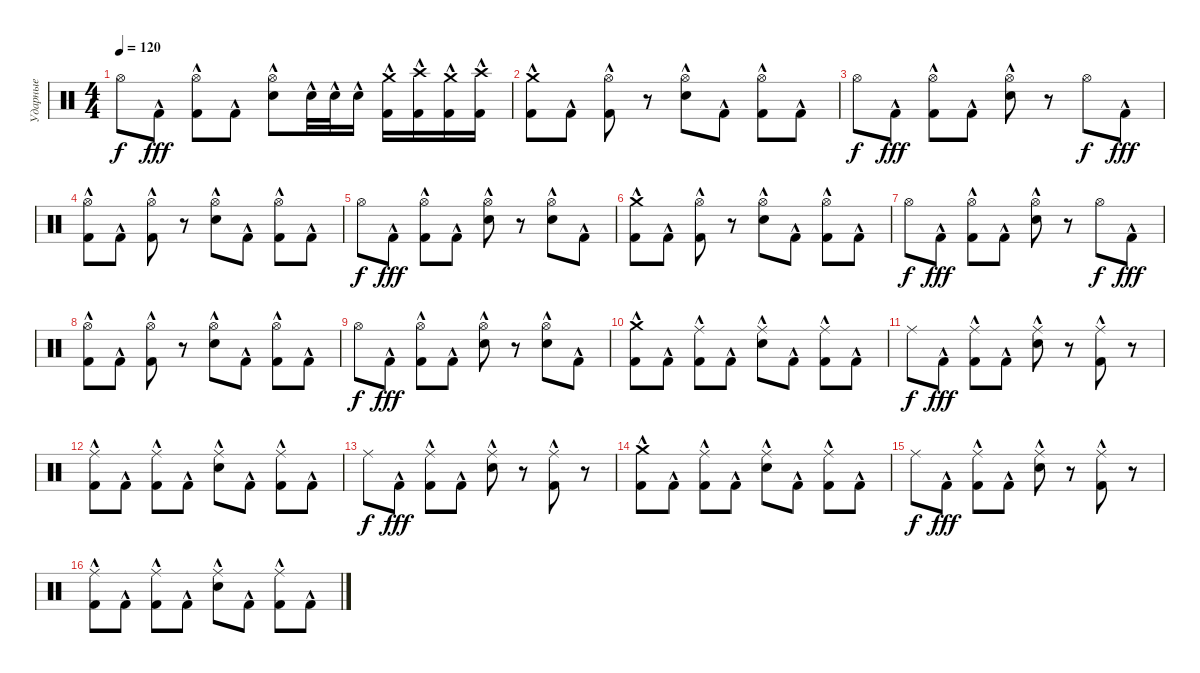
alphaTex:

\track ("Ударные" "Ударные") {instrument percussion}
\staff
\articulation defaults
\ts (4 4)
\tempo 120
\clef neutral
\ks c "Hi-Hat (open)".8{dy f} "Kick (hit) 2"{hac}.8{dy fff}
("Hi-Hat (open)" "Kick (hit) 2"{hac}).8 "Kick (hit) 2"{hac}.8 ("Hi-Hat (open)" "Snare (hit) 2"{hac}).8 "Snare (hit) 2"{hac}.32 "Snare (hit) 2"{hac}.32 "Snare (hit) 2"{hac}.16 ("Crash medium (hit)" "Kick (hit) 2"{hac}).16 ("Crash high (hit)" "Kick (hit) 2"{hac}).16 ("Crash medium (hit)" "Kick (hit) 2"{hac}).16 ("Crash high (hit)" "Kick (hit) 2"{hac}).16 |
("Crash medium (hit)" "Kick (hit) 2"{hac}).8 "Kick (hit) 2"{hac}.8 ("Hi-Hat (open)" "Kick (hit) 2"{hac}).8 r.8 ("Hi-Hat (open)" "Snare (hit) 2"{hac}).8 "Kick (hit) 2"{hac}.8 ("Hi-Hat (open)" "Kick (hit) 2"{hac}).8 "Kick (hit) 2"{hac}.8 |
"Hi-Hat (open)".8{dy f} "Kick (hit) 2"{hac}.8{dy fff} ("Hi-Hat (open)" "Kick (hit) 2"{hac}).8 "Kick (hit) 2"{hac}.8 ("Hi-Hat (open)" "Snare (hit) 2"{hac}).8 r.8 "Hi-Hat (open)".8{dy f} "Kick (hit) 2"{hac}.8{dy fff} |
("Hi-Hat (open)" "Kick (hit) 2"{hac}).8 "Kick (hit) 2"{hac}.8 ("Hi-Hat (open)" "Kick (hit) 2"{hac}).8 r.8 ("Hi-Hat (open)" "Snare (hit) 2"{hac}).8 "Kick (hit) 2"{hac}.8 ("Hi-Hat (open)" "Kick (hit) 2"{hac}).8 "Kick (hit) 2"{hac}.8 |
"Hi-Hat (open)".8{dy f} "Kick (hit) 2"{hac}.8{dy fff} ("Hi-Hat (open)" "Kick (hit) 2"{hac}).8 "Kick (hit) 2"{hac}.8 ("Hi-Hat (open)" "Snare (hit) 2"{hac}).8 r.8 ("Hi-Hat (open)" "Snare (hit) 2"{hac}).8 "Kick (hit) 2"{hac}.8 |
("Crash medium (hit)" "Kick (hit) 2"{hac}).8 "Kick (hit) 2"{hac}.8 ("Hi-Hat (open)" "Kick (hit) 2"{hac}).8 r.8 ("Hi-Hat (open)" "Snare (hit) 2"{hac}).8 "Kick (hit) 2"{hac}.8 ("Hi-Hat (open)" "Kick (hit) 2"{hac}).8 "Kick (hit) 2"{hac}.8 |
"Hi-Hat (open)".8{dy f} "Kick (hit) 2"{hac}.8{dy fff} ("Hi-Hat (open)" "Kick (hit) 2"{hac}).8 "Kick (hit) 2"{hac}.8 ("Hi-Hat (open)" "Snare (hit) 2"{hac}).8 r.8 "Hi-Hat (open)".8{dy f} "Kick (hit) 2"{hac}.8{dy fff} |
("Hi-Hat (open)" "Kick (hit) 2"{hac}).8 "Kick (hit) 2"{hac}.8 ("Hi-Hat (open)" "Kick (hit) 2"{hac}).8 r.8 ("Hi-Hat (open)" "Snare (hit) 2"{hac}).8 "Kick (hit) 2"{hac}.8 ("Hi-Hat (open)" "Kick (hit) 2"{hac}).8 "Kick (hit) 2"{hac}.8 |
"Hi-Hat (open)".8{dy f} "Kick (hit) 2"{hac}.8{dy fff} ("Hi-Hat (open)" "Kick (hit) 2"{hac}).8 "Kick (hit) 2"{hac}.8 ("Hi-Hat (open)" "Snare (hit) 2"{hac}).8 r.8 ("Hi-Hat (open)" "Snare (hit) 2"{hac}).8 "Kick (hit) 2"{hac}.8 |
("Crash medium (hit)" "Kick (hit) 2"{hac}).8 "Kick (hit) 2"{hac}.8 ("Ride (middle)" "Kick (hit) 2"{hac}).8 "Kick (hit) 2"{hac}.8 ("Ride (middle)" "Snare (hit) 2"{hac}).8 "Kick (hit) 2"{hac}.8 ("Ride (middle)" "Kick (hit) 2"{hac}).8 "Kick (hit) 2"{hac}.8 |
"Ride (middle)".8{dy f} "Kick (hit) 2"{hac}.8{dy fff} ("Ride (middle)" "Kick (hit) 2"{hac}).8 "Kick (hit) 2"{hac}.8 ("Ride (middle)" "Snare (hit) 2"{hac}).8 r.8 ("Ride (middle)" "Kick (hit) 2"{hac}).8 r.8 |
("Ride (middle)" "Kick (hit) 2"{hac}).8 "Kick (hit) 2"{hac}.8 ("Ride (middle)" "Kick (hit) 2"{hac}).8 "Kick (hit) 2"{hac}.8 ("Ride (middle)" "Snare (hit) 2"{hac}).8 "Kick (hit) 2"{hac}.8 ("Ride (middle)" "Kick (hit) 2"{hac}).8 "Kick (hit) 2"{hac}.8 |
"Ride (middle)".8{dy f} "Kick (hit) 2"{hac}.8{dy fff} ("Ride (middle)" "Kick (hit) 2"{hac}).8 "Kick (hit) 2"{hac}.8 ("Ride (middle)" "Snare (hit) 2"{hac}).8 r.8 ("Ride (middle)" "Kick (hit) 2"{hac}).8 r.8 |
("Crash medium (hit)" "Kick (hit) 2"{hac}).8 "Kick (hit) 2"{hac}.8 ("Ride (middle)" "Kick (hit) 2"{hac}).8 "Kick (hit) 2"{hac}.8 ("Ride (middle)" "Snare (hit) 2"{hac}).8 "Kick (hit) 2"{hac}.8 ("Ride (middle)" "Kick (hit) 2"{hac}).8 "Kick (hit) 2"{hac}.8 |
"Ride (middle)".8{dy f} "Kick (hit) 2"{hac}.8{dy fff} ("Ride (middle)" "Kick (hit) 2"{hac}).8 "Kick (hit) 2"{hac}.8 ("Ride (middle)" "Snare (hit) 2"{hac}).8 r.8 ("Ride (middle)" "Kick (hit) 2"{hac}).8 r.8 |
("Ride (middle)" "Kick (hit) 2"{hac}).8 "Kick (hit) 2"{hac}.8 ("Ride (middle)" "Kick (hit) 2"{hac}).8 "Kick (hit) 2"{hac}.8 ("Ride (middle)" "Snare (hit) 2"{hac}).8 "Kick (hit) 2"{hac}.8 ("Ride (middle)" "Kick (hit) 2"{hac}).8 "Kick (hit) 2"{hac}.8
